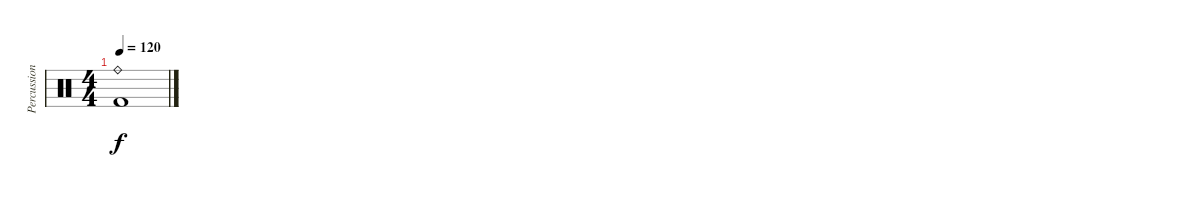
\track ("Percussion" "Percussion") {instrument percussion}
\staff {score}
\articulation defaults
\ts (4 4)
\tempo 120
\clef neutral
\ks c
("Ride (bell)" "Kick (hit) 2").1{dy f}
